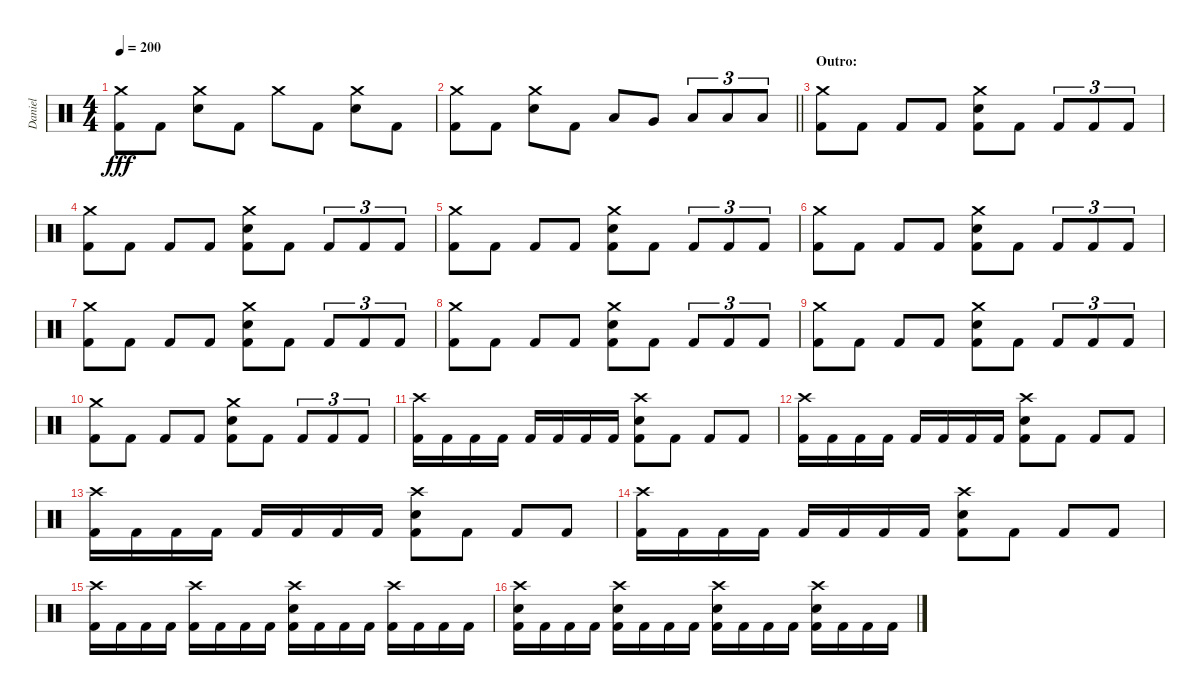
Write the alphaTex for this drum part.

\track ("Daniel" "Daniel") {instrument percussion}
\staff {score}
\articulation defaults
\ts (4 4)
\tempo 200
\clef neutral
\ks c
("Crash medium (hit)" "Kick (hit) 2").8{dy fff} "Kick (hit) 2".8 ("Crash medium (hit)" "Electric Snare (hit)").8 "Kick (hit) 2".8 "Crash medium (hit)".8 "Kick (hit) 2".8 ("Crash medium (hit)" "Electric Snare (hit)").8 "Kick (hit) 2".8 |
\barLineRight lightlight
("Crash medium (hit)" "Kick (hit) 2").8 "Kick (hit) 2".8 ("Crash medium (hit)" "Electric Snare (hit)").8 "Kick (hit) 2".8 "Low Tom (hit)".8 "Very Low Tom (hit)".8 "Low Floor Tom (hit)".8{tu (3 2)} "Low Floor Tom (hit)".8{tu (3 2)} "Low Floor Tom (hit)".8{tu (3 2)} |
\section ("" "Outro:")
("Crash medium (hit)" "Kick (hit) 2").8 "Kick (hit) 2".8 "Kick (hit) 2".8 "Kick (hit) 2".8 ("Crash medium (hit)" "Electric Snare (hit)" "Kick (hit) 2").8 "Kick (hit) 2".8 "Kick (hit) 2".8{tu (3 2)} "Kick (hit) 2".8{tu (3 2)} "Kick (hit) 2".8{tu (3 2)} |
("Crash medium (hit)" "Kick (hit) 2").8 "Kick (hit) 2".8 "Kick (hit) 2".8 "Kick (hit) 2".8 ("Crash medium (hit)" "Electric Snare (hit)" "Kick (hit) 2").8 "Kick (hit) 2".8 "Kick (hit) 2".8{tu (3 2)} "Kick (hit) 2".8{tu (3 2)} "Kick (hit) 2".8{tu (3 2)} |
("Crash medium (hit)" "Kick (hit) 2").8 "Kick (hit) 2".8 "Kick (hit) 2".8 "Kick (hit) 2".8 ("Crash medium (hit)" "Electric Snare (hit)" "Kick (hit) 2").8 "Kick (hit) 2".8 "Kick (hit) 2".8{tu (3 2)} "Kick (hit) 2".8{tu (3 2)} "Kick (hit) 2".8{tu (3 2)} |
("Crash medium (hit)" "Kick (hit) 2").8 "Kick (hit) 2".8 "Kick (hit) 2".8 "Kick (hit) 2".8 ("Crash medium (hit)" "Electric Snare (hit)" "Kick (hit) 2").8 "Kick (hit) 2".8 "Kick (hit) 2".8{tu (3 2)} "Kick (hit) 2".8{tu (3 2)} "Kick (hit) 2".8{tu (3 2)} |
("Crash medium (hit)" "Kick (hit) 2").8 "Kick (hit) 2".8 "Kick (hit) 2".8 "Kick (hit) 2".8 ("Crash medium (hit)" "Electric Snare (hit)" "Kick (hit) 2").8 "Kick (hit) 2".8 "Kick (hit) 2".8{tu (3 2)} "Kick (hit) 2".8{tu (3 2)} "Kick (hit) 2".8{tu (3 2)} |
("Crash medium (hit)" "Kick (hit) 2").8 "Kick (hit) 2".8 "Kick (hit) 2".8 "Kick (hit) 2".8 ("Crash medium (hit)" "Electric Snare (hit)" "Kick (hit) 2").8 "Kick (hit) 2".8 "Kick (hit) 2".8{tu (3 2)} "Kick (hit) 2".8{tu (3 2)} "Kick (hit) 2".8{tu (3 2)} |
("Crash medium (hit)" "Kick (hit) 2").8 "Kick (hit) 2".8 "Kick (hit) 2".8 "Kick (hit) 2".8 ("Crash medium (hit)" "Electric Snare (hit)" "Kick (hit) 2").8 "Kick (hit) 2".8 "Kick (hit) 2".8{tu (3 2)} "Kick (hit) 2".8{tu (3 2)} "Kick (hit) 2".8{tu (3 2)} |
("Crash medium (hit)" "Kick (hit) 2").8 "Kick (hit) 2".8 "Kick (hit) 2".8 "Kick (hit) 2".8 ("Crash medium (hit)" "Electric Snare (hit)" "Kick (hit) 2").8 "Kick (hit) 2".8 "Kick (hit) 2".8{tu (3 2)} "Kick (hit) 2".8{tu (3 2)} "Kick (hit) 2".8{tu (3 2)} |
("Crash high (hit)" "Kick (hit) 2").16 "Kick (hit) 2".16 "Kick (hit) 2".16 "Kick (hit) 2".16 "Kick (hit) 2".16 "Kick (hit) 2".16 "Kick (hit) 2".16 "Kick (hit) 2".16 ("Crash high (hit)" "Electric Snare (hit)" "Kick (hit) 2").8 "Kick (hit) 2".8 "Kick (hit) 2".8 "Kick (hit) 2".8 |
("Crash high (hit)" "Kick (hit) 2").16 "Kick (hit) 2".16 "Kick (hit) 2".16 "Kick (hit) 2".16 "Kick (hit) 2".16 "Kick (hit) 2".16 "Kick (hit) 2".16 "Kick (hit) 2".16 ("Crash high (hit)" "Electric Snare (hit)" "Kick (hit) 2").8 "Kick (hit) 2".8 "Kick (hit) 2".8 "Kick (hit) 2".8 |
("Crash high (hit)" "Kick (hit) 2").16 "Kick (hit) 2".16 "Kick (hit) 2".16 "Kick (hit) 2".16 "Kick (hit) 2".16 "Kick (hit) 2".16 "Kick (hit) 2".16 "Kick (hit) 2".16 ("Crash high (hit)" "Electric Snare (hit)" "Kick (hit) 2").8 "Kick (hit) 2".8 "Kick (hit) 2".8 "Kick (hit) 2".8 |
("Crash high (hit)" "Kick (hit) 2").16 "Kick (hit) 2".16 "Kick (hit) 2".16 "Kick (hit) 2".16 "Kick (hit) 2".16 "Kick (hit) 2".16 "Kick (hit) 2".16 "Kick (hit) 2".16 ("Crash high (hit)" "Electric Snare (hit)" "Kick (hit) 2").8 "Kick (hit) 2".8 "Kick (hit) 2".8 "Kick (hit) 2".8 |
("Crash high (hit)" "Kick (hit) 2").16 "Kick (hit) 2".16 "Kick (hit) 2".16 "Kick (hit) 2".16 ("Crash high (hit)" "Kick (hit) 2").16 "Kick (hit) 2".16 "Kick (hit) 2".16 "Kick (hit) 2".16 ("Crash high (hit)" "Electric Snare (hit)" "Kick (hit) 2").16 "Kick (hit) 2".16 "Kick (hit) 2".16 "Kick (hit) 2".16 ("Crash high (hit)" "Kick (hit) 2").16 "Kick (hit) 2".16 "Kick (hit) 2".16 "Kick (hit) 2".16 |
("Crash high (hit)" "Electric Snare (hit)" "Kick (hit) 2").16 "Kick (hit) 2".16 "Kick (hit) 2".16 "Kick (hit) 2".16 ("Crash high (hit)" "Electric Snare (hit)" "Kick (hit) 2").16 "Kick (hit) 2".16 "Kick (hit) 2".16 "Kick (hit) 2".16 ("Crash high (hit)" "Electric Snare (hit)" "Kick (hit) 2").16 "Kick (hit) 2".16 "Kick (hit) 2".16 "Kick (hit) 2".16 ("Crash high (hit)" "Electric Snare (hit)" "Kick (hit) 2").16 "Kick (hit) 2".16 "Kick (hit) 2".16 "Kick (hit) 2".16
